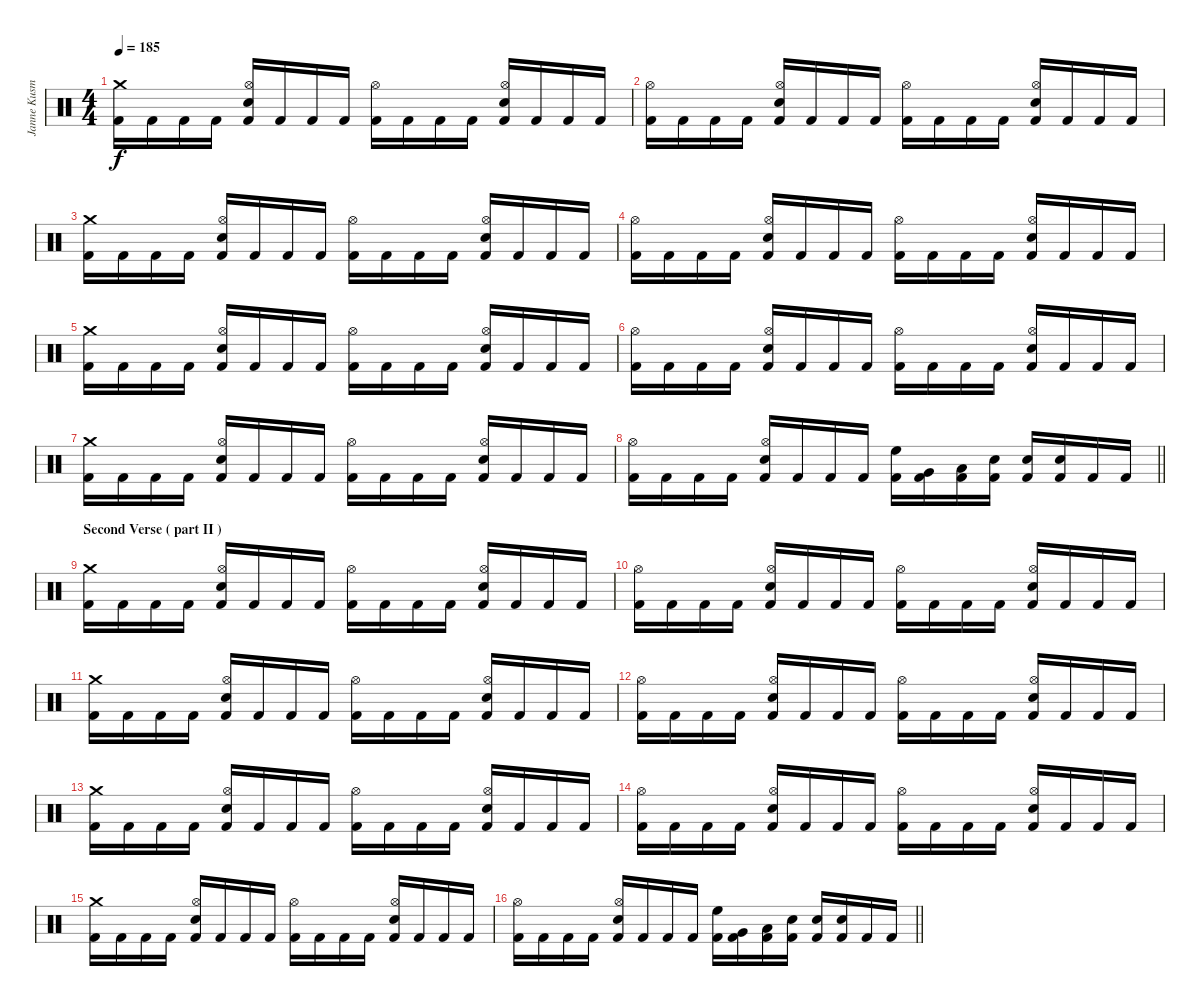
\track ("Janne Kusmin" "Janne Kusm") {instrument percussion}
\staff {score}
\articulation defaults
\ts (4 4)
\tempo 185
\clef neutral
\ks c
("Crash medium (hit)" "Kick (hit) 2").16{dy f} "Kick (hit) 2".16 "Kick (hit) 2".16 "Kick (hit) 2".16 ("Hi-Hat (open)" "Electric Snare (hit)" "Kick (hit) 2").16 "Kick (hit) 2".16 "Kick (hit) 2".16 "Kick (hit) 2".16 ("Hi-Hat (open)" "Kick (hit) 2").16 "Kick (hit) 2".16 "Kick (hit) 2".16 "Kick (hit) 2".16 ("Hi-Hat (open)" "Electric Snare (hit)" "Kick (hit) 2").16 "Kick (hit) 2".16 "Kick (hit) 2".16 "Kick (hit) 2".16 |
("Hi-Hat (open)" "Kick (hit) 2").16 "Kick (hit) 2".16 "Kick (hit) 2".16 "Kick (hit) 2".16 ("Hi-Hat (open)" "Electric Snare (hit)" "Kick (hit) 2").16 "Kick (hit) 2".16 "Kick (hit) 2".16 "Kick (hit) 2".16 ("Hi-Hat (open)" "Kick (hit) 2").16 "Kick (hit) 2".16 "Kick (hit) 2".16 "Kick (hit) 2".16 ("Hi-Hat (open)" "Electric Snare (hit)" "Kick (hit) 2").16 "Kick (hit) 2".16 "Kick (hit) 2".16 "Kick (hit) 2".16 |
("Crash medium (hit)" "Kick (hit) 2").16 "Kick (hit) 2".16 "Kick (hit) 2".16 "Kick (hit) 2".16 ("Hi-Hat (open)" "Electric Snare (hit)" "Kick (hit) 2").16 "Kick (hit) 2".16 "Kick (hit) 2".16 "Kick (hit) 2".16 ("Hi-Hat (open)" "Kick (hit) 2").16 "Kick (hit) 2".16 "Kick (hit) 2".16 "Kick (hit) 2".16 ("Hi-Hat (open)" "Electric Snare (hit)" "Kick (hit) 2").16 "Kick (hit) 2".16 "Kick (hit) 2".16 "Kick (hit) 2".16 |
("Hi-Hat (open)" "Kick (hit) 2").16 "Kick (hit) 2".16 "Kick (hit) 2".16 "Kick (hit) 2".16 ("Hi-Hat (open)" "Electric Snare (hit)" "Kick (hit) 2").16 "Kick (hit) 2".16 "Kick (hit) 2".16 "Kick (hit) 2".16 ("Hi-Hat (open)" "Kick (hit) 2").16 "Kick (hit) 2".16 "Kick (hit) 2".16 "Kick (hit) 2".16 ("Hi-Hat (open)" "Electric Snare (hit)" "Kick (hit) 2").16 "Kick (hit) 2".16 "Kick (hit) 2".16 "Kick (hit) 2".16 |
("Crash medium (hit)" "Kick (hit) 2").16 "Kick (hit) 2".16 "Kick (hit) 2".16 "Kick (hit) 2".16 ("Hi-Hat (open)" "Electric Snare (hit)" "Kick (hit) 2").16 "Kick (hit) 2".16 "Kick (hit) 2".16 "Kick (hit) 2".16 ("Hi-Hat (open)" "Kick (hit) 2").16 "Kick (hit) 2".16 "Kick (hit) 2".16 "Kick (hit) 2".16 ("Hi-Hat (open)" "Electric Snare (hit)" "Kick (hit) 2").16 "Kick (hit) 2".16 "Kick (hit) 2".16 "Kick (hit) 2".16 |
("Hi-Hat (open)" "Kick (hit) 2").16 "Kick (hit) 2".16 "Kick (hit) 2".16 "Kick (hit) 2".16 ("Hi-Hat (open)" "Electric Snare (hit)" "Kick (hit) 2").16 "Kick (hit) 2".16 "Kick (hit) 2".16 "Kick (hit) 2".16 ("Hi-Hat (open)" "Kick (hit) 2").16 "Kick (hit) 2".16 "Kick (hit) 2".16 "Kick (hit) 2".16 ("Hi-Hat (open)" "Electric Snare (hit)" "Kick (hit) 2").16 "Kick (hit) 2".16 "Kick (hit) 2".16 "Kick (hit) 2".16 |
("Crash medium (hit)" "Kick (hit) 2").16 "Kick (hit) 2".16 "Kick (hit) 2".16 "Kick (hit) 2".16 ("Hi-Hat (open)" "Electric Snare (hit)" "Kick (hit) 2").16 "Kick (hit) 2".16 "Kick (hit) 2".16 "Kick (hit) 2".16 ("Hi-Hat (open)" "Kick (hit) 2").16 "Kick (hit) 2".16 "Kick (hit) 2".16 "Kick (hit) 2".16 ("Hi-Hat (open)" "Electric Snare (hit)" "Kick (hit) 2").16 "Kick (hit) 2".16 "Kick (hit) 2".16 "Kick (hit) 2".16 |
\barLineRight lightlight
("Hi-Hat (open)" "Kick (hit) 2").16 "Kick (hit) 2".16 "Kick (hit) 2".16 "Kick (hit) 2".16 ("Hi-Hat (open)" "Electric Snare (hit)" "Kick (hit) 2").16 "Kick (hit) 2".16 "Kick (hit) 2".16 "Kick (hit) 2".16 ("High Floor Tom (hit)" "Kick (hit) 2").16 ("Very Low Tom (hit)" "Kick (hit) 2").16 ("Low Floor Tom (hit)" "Kick (hit) 2").16 ("Electric Snare (hit)" "Kick (hit) 2").16 ("Electric Snare (hit)" "Kick (hit) 2").16 ("Electric Snare (hit)" "Kick (hit) 2").16 "Kick (hit) 2".16 "Kick (hit) 2".16 |
\section ("" "Second Verse ( part II )")
("Crash medium (hit)" "Kick (hit) 2").16 "Kick (hit) 2".16 "Kick (hit) 2".16 "Kick (hit) 2".16 ("Hi-Hat (open)" "Electric Snare (hit)" "Kick (hit) 2").16 "Kick (hit) 2".16 "Kick (hit) 2".16 "Kick (hit) 2".16 ("Hi-Hat (open)" "Kick (hit) 2").16 "Kick (hit) 2".16 "Kick (hit) 2".16 "Kick (hit) 2".16 ("Hi-Hat (open)" "Electric Snare (hit)" "Kick (hit) 2").16 "Kick (hit) 2".16 "Kick (hit) 2".16 "Kick (hit) 2".16 |
("Hi-Hat (open)" "Kick (hit) 2").16 "Kick (hit) 2".16 "Kick (hit) 2".16 "Kick (hit) 2".16 ("Hi-Hat (open)" "Electric Snare (hit)" "Kick (hit) 2").16 "Kick (hit) 2".16 "Kick (hit) 2".16 "Kick (hit) 2".16 ("Hi-Hat (open)" "Kick (hit) 2").16 "Kick (hit) 2".16 "Kick (hit) 2".16 "Kick (hit) 2".16 ("Hi-Hat (open)" "Electric Snare (hit)" "Kick (hit) 2").16 "Kick (hit) 2".16 "Kick (hit) 2".16 "Kick (hit) 2".16 |
("Crash medium (hit)" "Kick (hit) 2").16 "Kick (hit) 2".16 "Kick (hit) 2".16 "Kick (hit) 2".16 ("Hi-Hat (open)" "Electric Snare (hit)" "Kick (hit) 2").16 "Kick (hit) 2".16 "Kick (hit) 2".16 "Kick (hit) 2".16 ("Hi-Hat (open)" "Kick (hit) 2").16 "Kick (hit) 2".16 "Kick (hit) 2".16 "Kick (hit) 2".16 ("Hi-Hat (open)" "Electric Snare (hit)" "Kick (hit) 2").16 "Kick (hit) 2".16 "Kick (hit) 2".16 "Kick (hit) 2".16 |
("Hi-Hat (open)" "Kick (hit) 2").16 "Kick (hit) 2".16 "Kick (hit) 2".16 "Kick (hit) 2".16 ("Hi-Hat (open)" "Electric Snare (hit)" "Kick (hit) 2").16 "Kick (hit) 2".16 "Kick (hit) 2".16 "Kick (hit) 2".16 ("Hi-Hat (open)" "Kick (hit) 2").16 "Kick (hit) 2".16 "Kick (hit) 2".16 "Kick (hit) 2".16 ("Hi-Hat (open)" "Electric Snare (hit)" "Kick (hit) 2").16 "Kick (hit) 2".16 "Kick (hit) 2".16 "Kick (hit) 2".16 |
("Crash medium (hit)" "Kick (hit) 2").16 "Kick (hit) 2".16 "Kick (hit) 2".16 "Kick (hit) 2".16 ("Hi-Hat (open)" "Electric Snare (hit)" "Kick (hit) 2").16 "Kick (hit) 2".16 "Kick (hit) 2".16 "Kick (hit) 2".16 ("Hi-Hat (open)" "Kick (hit) 2").16 "Kick (hit) 2".16 "Kick (hit) 2".16 "Kick (hit) 2".16 ("Hi-Hat (open)" "Electric Snare (hit)" "Kick (hit) 2").16 "Kick (hit) 2".16 "Kick (hit) 2".16 "Kick (hit) 2".16 |
("Hi-Hat (open)" "Kick (hit) 2").16 "Kick (hit) 2".16 "Kick (hit) 2".16 "Kick (hit) 2".16 ("Hi-Hat (open)" "Electric Snare (hit)" "Kick (hit) 2").16 "Kick (hit) 2".16 "Kick (hit) 2".16 "Kick (hit) 2".16 ("Hi-Hat (open)" "Kick (hit) 2").16 "Kick (hit) 2".16 "Kick (hit) 2".16 "Kick (hit) 2".16 ("Hi-Hat (open)" "Electric Snare (hit)" "Kick (hit) 2").16 "Kick (hit) 2".16 "Kick (hit) 2".16 "Kick (hit) 2".16 |
("Crash medium (hit)" "Kick (hit) 2").16 "Kick (hit) 2".16 "Kick (hit) 2".16 "Kick (hit) 2".16 ("Hi-Hat (open)" "Electric Snare (hit)" "Kick (hit) 2").16 "Kick (hit) 2".16 "Kick (hit) 2".16 "Kick (hit) 2".16 ("Hi-Hat (open)" "Kick (hit) 2").16 "Kick (hit) 2".16 "Kick (hit) 2".16 "Kick (hit) 2".16 ("Hi-Hat (open)" "Electric Snare (hit)" "Kick (hit) 2").16 "Kick (hit) 2".16 "Kick (hit) 2".16 "Kick (hit) 2".16 |
\barLineRight lightlight
("Hi-Hat (open)" "Kick (hit) 2").16 "Kick (hit) 2".16 "Kick (hit) 2".16 "Kick (hit) 2".16 ("Hi-Hat (open)" "Electric Snare (hit)" "Kick (hit) 2").16 "Kick (hit) 2".16 "Kick (hit) 2".16 "Kick (hit) 2".16 ("High Floor Tom (hit)" "Kick (hit) 2").16 ("Very Low Tom (hit)" "Kick (hit) 2").16 ("Low Floor Tom (hit)" "Kick (hit) 2").16 ("Electric Snare (hit)" "Kick (hit) 2").16 ("Electric Snare (hit)" "Kick (hit) 2").16 ("Electric Snare (hit)" "Kick (hit) 2").16 "Kick (hit) 2".16 "Kick (hit) 2".16
